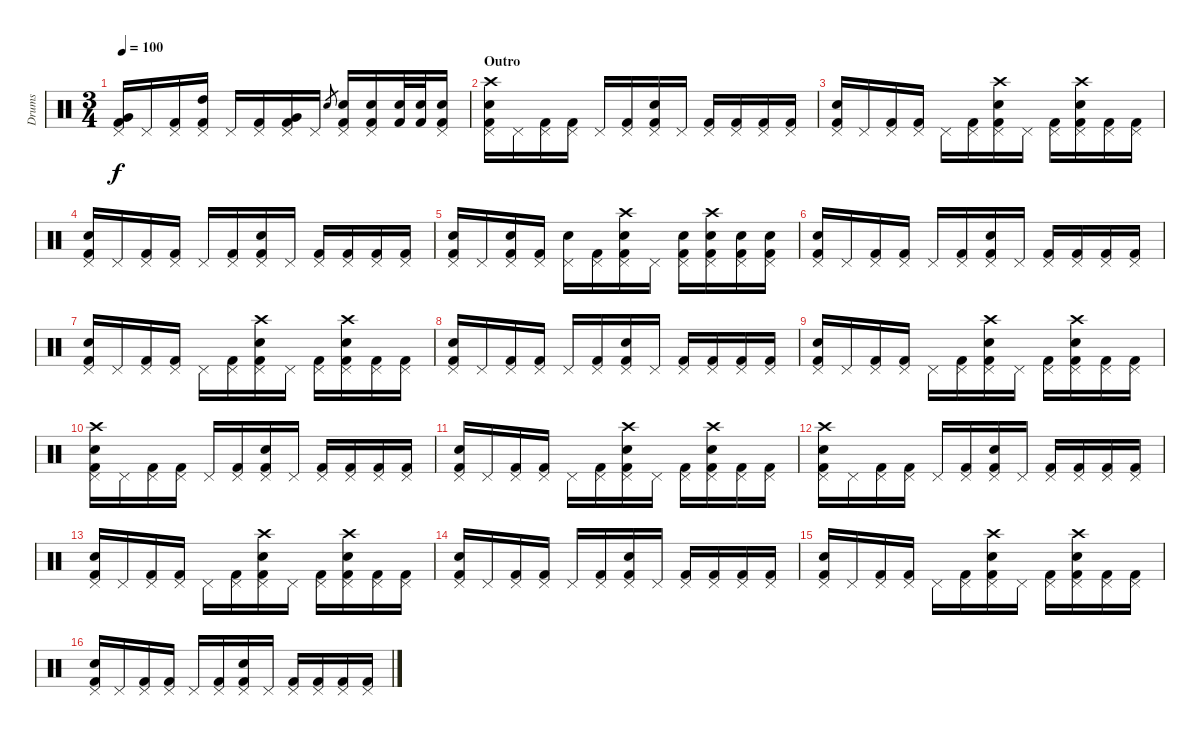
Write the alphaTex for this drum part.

\track ("Drums" "Drums") {instrument percussion}
\staff {score}
\articulation defaults
\ts (3 4)
\tempo 100
\clef neutral
\ks c
("Very Low Tom (hit)" "Pedal Hi-Hat (hit)" "Kick (hit) 2").16{dy f} "Pedal Hi-Hat (hit)".16 ("Pedal Hi-Hat (hit)" "Kick (hit) 2").16 ("High Tom (hit)" "Pedal Hi-Hat (hit)" "Kick (hit) 2").16 "Pedal Hi-Hat (hit)".16 ("Pedal Hi-Hat (hit)" "Kick (hit) 2").16 ("Very Low Tom (hit)" "Pedal Hi-Hat (hit)" "Kick (hit) 2").16 "Pedal Hi-Hat (hit)".16 "Snare (hit) 2".8{gr} ("Snare (hit) 2" "Pedal Hi-Hat (hit)" "Kick (hit) 2").16 ("Electric Snare (hit)" "Pedal Hi-Hat (hit)" "Kick (hit) 2").16 ("Snare (hit) 2" "Kick (hit) 2").32 ("Snare (hit) 2" "Kick (hit) 2").32 ("Electric Snare (hit)" "Pedal Hi-Hat (hit)" "Kick (hit) 2").16 |
\section ("" "Outro")
("Crash high (hit)" "Snare (hit) 2" "Pedal Hi-Hat (hit)" "Kick (hit) 2").16 "Pedal Hi-Hat (hit)".16 ("Pedal Hi-Hat (hit)" "Kick (hit) 2").16 ("Pedal Hi-Hat (hit)" "Kick (hit) 2").16 "Pedal Hi-Hat (hit)".16 ("Pedal Hi-Hat (hit)" "Kick (hit) 2").16 ("Snare (hit) 2" "Pedal Hi-Hat (hit)" "Kick (hit) 2").16 "Pedal Hi-Hat (hit)".16 ("Pedal Hi-Hat (hit)" "Kick (hit) 2").16 ("Pedal Hi-Hat (hit)" "Kick (hit) 2").16 ("Pedal Hi-Hat (hit)" "Kick (hit) 2").16 ("Pedal Hi-Hat (hit)" "Kick (hit) 2").16 |
("Snare (hit) 2" "Pedal Hi-Hat (hit)" "Kick (hit) 2").16 "Pedal Hi-Hat (hit)".16 ("Pedal Hi-Hat (hit)" "Kick (hit) 2").16 ("Pedal Hi-Hat (hit)" "Kick (hit) 2").16 "Pedal Hi-Hat (hit)".16 ("Pedal Hi-Hat (hit)" "Kick (hit) 2").16 ("Crash high (hit)" "Snare (hit) 2" "Pedal Hi-Hat (hit)" "Kick (hit) 2").16 "Pedal Hi-Hat (hit)".16 ("Pedal Hi-Hat (hit)" "Kick (hit) 2").16 ("Crash high (hit)" "Snare (hit) 2" "Pedal Hi-Hat (hit)" "Kick (hit) 2").16 ("Pedal Hi-Hat (hit)" "Kick (hit) 2").16 ("Pedal Hi-Hat (hit)" "Kick (hit) 2").16 |
("Snare (hit) 2" "Pedal Hi-Hat (hit)" "Kick (hit) 2").16 "Pedal Hi-Hat (hit)".16 ("Pedal Hi-Hat (hit)" "Kick (hit) 2").16 ("Pedal Hi-Hat (hit)" "Kick (hit) 2").16 "Pedal Hi-Hat (hit)".16 ("Pedal Hi-Hat (hit)" "Kick (hit) 2").16 ("Snare (hit) 2" "Pedal Hi-Hat (hit)" "Kick (hit) 2").16 "Pedal Hi-Hat (hit)".16 ("Pedal Hi-Hat (hit)" "Kick (hit) 2").16 ("Pedal Hi-Hat (hit)" "Kick (hit) 2").16 ("Pedal Hi-Hat (hit)" "Kick (hit) 2").16 ("Pedal Hi-Hat (hit)" "Kick (hit) 2").16 |
("Snare (hit) 2" "Pedal Hi-Hat (hit)" "Kick (hit) 2").16 "Pedal Hi-Hat (hit)".16 ("Snare (hit) 2" "Pedal Hi-Hat (hit)" "Kick (hit) 2").16 ("Pedal Hi-Hat (hit)" "Kick (hit) 2").16 ("Snare (hit) 2" "Pedal Hi-Hat (hit)").16 ("Pedal Hi-Hat (hit)" "Kick (hit) 2").16 ("Crash high (hit)" "Snare (hit) 2" "Pedal Hi-Hat (hit)" "Kick (hit) 2").16 "Pedal Hi-Hat (hit)".16 ("Snare (hit) 2" "Pedal Hi-Hat (hit)" "Kick (hit) 2").16 ("Crash high (hit)" "Snare (hit) 2" "Pedal Hi-Hat (hit)" "Kick (hit) 2").16 ("Snare (hit) 2" "Pedal Hi-Hat (hit)" "Kick (hit) 2").16 ("Snare (hit) 2" "Pedal Hi-Hat (hit)" "Kick (hit) 2").16 |
("Snare (hit) 2" "Pedal Hi-Hat (hit)" "Kick (hit) 2").16 "Pedal Hi-Hat (hit)".16 ("Pedal Hi-Hat (hit)" "Kick (hit) 2").16 ("Pedal Hi-Hat (hit)" "Kick (hit) 2").16 "Pedal Hi-Hat (hit)".16 ("Pedal Hi-Hat (hit)" "Kick (hit) 2").16 ("Snare (hit) 2" "Pedal Hi-Hat (hit)" "Kick (hit) 2").16 "Pedal Hi-Hat (hit)".16 ("Pedal Hi-Hat (hit)" "Kick (hit) 2").16 ("Pedal Hi-Hat (hit)" "Kick (hit) 2").16 ("Pedal Hi-Hat (hit)" "Kick (hit) 2").16 ("Pedal Hi-Hat (hit)" "Kick (hit) 2").16 |
("Snare (hit) 2" "Pedal Hi-Hat (hit)" "Kick (hit) 2").16 "Pedal Hi-Hat (hit)".16 ("Pedal Hi-Hat (hit)" "Kick (hit) 2").16 ("Pedal Hi-Hat (hit)" "Kick (hit) 2").16 "Pedal Hi-Hat (hit)".16 ("Pedal Hi-Hat (hit)" "Kick (hit) 2").16 ("Crash high (hit)" "Snare (hit) 2" "Pedal Hi-Hat (hit)" "Kick (hit) 2").16 "Pedal Hi-Hat (hit)".16 ("Pedal Hi-Hat (hit)" "Kick (hit) 2").16 ("Crash high (hit)" "Snare (hit) 2" "Pedal Hi-Hat (hit)" "Kick (hit) 2").16 ("Pedal Hi-Hat (hit)" "Kick (hit) 2").16 ("Pedal Hi-Hat (hit)" "Kick (hit) 2").16 |
("Snare (hit) 2" "Pedal Hi-Hat (hit)" "Kick (hit) 2").16 "Pedal Hi-Hat (hit)".16 ("Pedal Hi-Hat (hit)" "Kick (hit) 2").16 ("Pedal Hi-Hat (hit)" "Kick (hit) 2").16 "Pedal Hi-Hat (hit)".16 ("Pedal Hi-Hat (hit)" "Kick (hit) 2").16 ("Snare (hit) 2" "Pedal Hi-Hat (hit)" "Kick (hit) 2").16 "Pedal Hi-Hat (hit)".16 ("Pedal Hi-Hat (hit)" "Kick (hit) 2").16 ("Pedal Hi-Hat (hit)" "Kick (hit) 2").16 ("Pedal Hi-Hat (hit)" "Kick (hit) 2").16 ("Pedal Hi-Hat (hit)" "Kick (hit) 2").16 |
("Snare (hit) 2" "Pedal Hi-Hat (hit)" "Kick (hit) 2").16 "Pedal Hi-Hat (hit)".16 ("Pedal Hi-Hat (hit)" "Kick (hit) 2").16 ("Pedal Hi-Hat (hit)" "Kick (hit) 2").16 "Pedal Hi-Hat (hit)".16 ("Pedal Hi-Hat (hit)" "Kick (hit) 2").16 ("Crash high (hit)" "Snare (hit) 2" "Pedal Hi-Hat (hit)" "Kick (hit) 2").16 "Pedal Hi-Hat (hit)".16 ("Pedal Hi-Hat (hit)" "Kick (hit) 2").16 ("Crash high (hit)" "Snare (hit) 2" "Pedal Hi-Hat (hit)" "Kick (hit) 2").16 ("Pedal Hi-Hat (hit)" "Kick (hit) 2").16 ("Pedal Hi-Hat (hit)" "Kick (hit) 2").16 |
("Crash high (hit)" "Snare (hit) 2" "Pedal Hi-Hat (hit)" "Kick (hit) 2").16 "Pedal Hi-Hat (hit)".16 ("Pedal Hi-Hat (hit)" "Kick (hit) 2").16 ("Pedal Hi-Hat (hit)" "Kick (hit) 2").16 "Pedal Hi-Hat (hit)".16 ("Pedal Hi-Hat (hit)" "Kick (hit) 2").16 ("Snare (hit) 2" "Pedal Hi-Hat (hit)" "Kick (hit) 2").16 "Pedal Hi-Hat (hit)".16 ("Pedal Hi-Hat (hit)" "Kick (hit) 2").16 ("Pedal Hi-Hat (hit)" "Kick (hit) 2").16 ("Pedal Hi-Hat (hit)" "Kick (hit) 2").16 ("Pedal Hi-Hat (hit)" "Kick (hit) 2").16 |
("Snare (hit) 2" "Pedal Hi-Hat (hit)" "Kick (hit) 2").16 "Pedal Hi-Hat (hit)".16 ("Pedal Hi-Hat (hit)" "Kick (hit) 2").16 ("Pedal Hi-Hat (hit)" "Kick (hit) 2").16 "Pedal Hi-Hat (hit)".16 ("Pedal Hi-Hat (hit)" "Kick (hit) 2").16 ("Crash high (hit)" "Snare (hit) 2" "Pedal Hi-Hat (hit)" "Kick (hit) 2").16 "Pedal Hi-Hat (hit)".16 ("Pedal Hi-Hat (hit)" "Kick (hit) 2").16 ("Crash high (hit)" "Snare (hit) 2" "Pedal Hi-Hat (hit)" "Kick (hit) 2").16 ("Pedal Hi-Hat (hit)" "Kick (hit) 2").16 ("Pedal Hi-Hat (hit)" "Kick (hit) 2").16 |
("Crash high (hit)" "Snare (hit) 2" "Pedal Hi-Hat (hit)" "Kick (hit) 2").16 "Pedal Hi-Hat (hit)".16 ("Pedal Hi-Hat (hit)" "Kick (hit) 2").16 ("Pedal Hi-Hat (hit)" "Kick (hit) 2").16 "Pedal Hi-Hat (hit)".16 ("Pedal Hi-Hat (hit)" "Kick (hit) 2").16 ("Snare (hit) 2" "Pedal Hi-Hat (hit)" "Kick (hit) 2").16 "Pedal Hi-Hat (hit)".16 ("Pedal Hi-Hat (hit)" "Kick (hit) 2").16 ("Pedal Hi-Hat (hit)" "Kick (hit) 2").16 ("Pedal Hi-Hat (hit)" "Kick (hit) 2").16 ("Pedal Hi-Hat (hit)" "Kick (hit) 2").16 |
("Snare (hit) 2" "Pedal Hi-Hat (hit)" "Kick (hit) 2").16 "Pedal Hi-Hat (hit)".16 ("Pedal Hi-Hat (hit)" "Kick (hit) 2").16 ("Pedal Hi-Hat (hit)" "Kick (hit) 2").16 "Pedal Hi-Hat (hit)".16 ("Pedal Hi-Hat (hit)" "Kick (hit) 2").16 ("Crash high (hit)" "Snare (hit) 2" "Pedal Hi-Hat (hit)" "Kick (hit) 2").16 "Pedal Hi-Hat (hit)".16 ("Pedal Hi-Hat (hit)" "Kick (hit) 2").16 ("Crash high (hit)" "Snare (hit) 2" "Pedal Hi-Hat (hit)" "Kick (hit) 2").16 ("Pedal Hi-Hat (hit)" "Kick (hit) 2").16 ("Pedal Hi-Hat (hit)" "Kick (hit) 2").16 |
("Snare (hit) 2" "Pedal Hi-Hat (hit)" "Kick (hit) 2").16 "Pedal Hi-Hat (hit)".16 ("Pedal Hi-Hat (hit)" "Kick (hit) 2").16 ("Pedal Hi-Hat (hit)" "Kick (hit) 2").16 "Pedal Hi-Hat (hit)".16 ("Pedal Hi-Hat (hit)" "Kick (hit) 2").16 ("Snare (hit) 2" "Pedal Hi-Hat (hit)" "Kick (hit) 2").16 "Pedal Hi-Hat (hit)".16 ("Pedal Hi-Hat (hit)" "Kick (hit) 2").16 ("Pedal Hi-Hat (hit)" "Kick (hit) 2").16 ("Pedal Hi-Hat (hit)" "Kick (hit) 2").16 ("Pedal Hi-Hat (hit)" "Kick (hit) 2").16 |
("Snare (hit) 2" "Pedal Hi-Hat (hit)" "Kick (hit) 2").16 "Pedal Hi-Hat (hit)".16 ("Pedal Hi-Hat (hit)" "Kick (hit) 2").16 ("Pedal Hi-Hat (hit)" "Kick (hit) 2").16 "Pedal Hi-Hat (hit)".16 ("Pedal Hi-Hat (hit)" "Kick (hit) 2").16 ("Crash high (hit)" "Snare (hit) 2" "Pedal Hi-Hat (hit)" "Kick (hit) 2").16 "Pedal Hi-Hat (hit)".16 ("Pedal Hi-Hat (hit)" "Kick (hit) 2").16 ("Crash high (hit)" "Snare (hit) 2" "Pedal Hi-Hat (hit)" "Kick (hit) 2").16 ("Pedal Hi-Hat (hit)" "Kick (hit) 2").16 ("Pedal Hi-Hat (hit)" "Kick (hit) 2").16 |
("Snare (hit) 2" "Pedal Hi-Hat (hit)" "Kick (hit) 2").16 "Pedal Hi-Hat (hit)".16 ("Pedal Hi-Hat (hit)" "Kick (hit) 2").16 ("Pedal Hi-Hat (hit)" "Kick (hit) 2").16 "Pedal Hi-Hat (hit)".16 ("Pedal Hi-Hat (hit)" "Kick (hit) 2").16 ("Snare (hit) 2" "Pedal Hi-Hat (hit)" "Kick (hit) 2").16 "Pedal Hi-Hat (hit)".16 ("Pedal Hi-Hat (hit)" "Kick (hit) 2").16 ("Pedal Hi-Hat (hit)" "Kick (hit) 2").16 ("Pedal Hi-Hat (hit)" "Kick (hit) 2").16 ("Pedal Hi-Hat (hit)" "Kick (hit) 2").16
